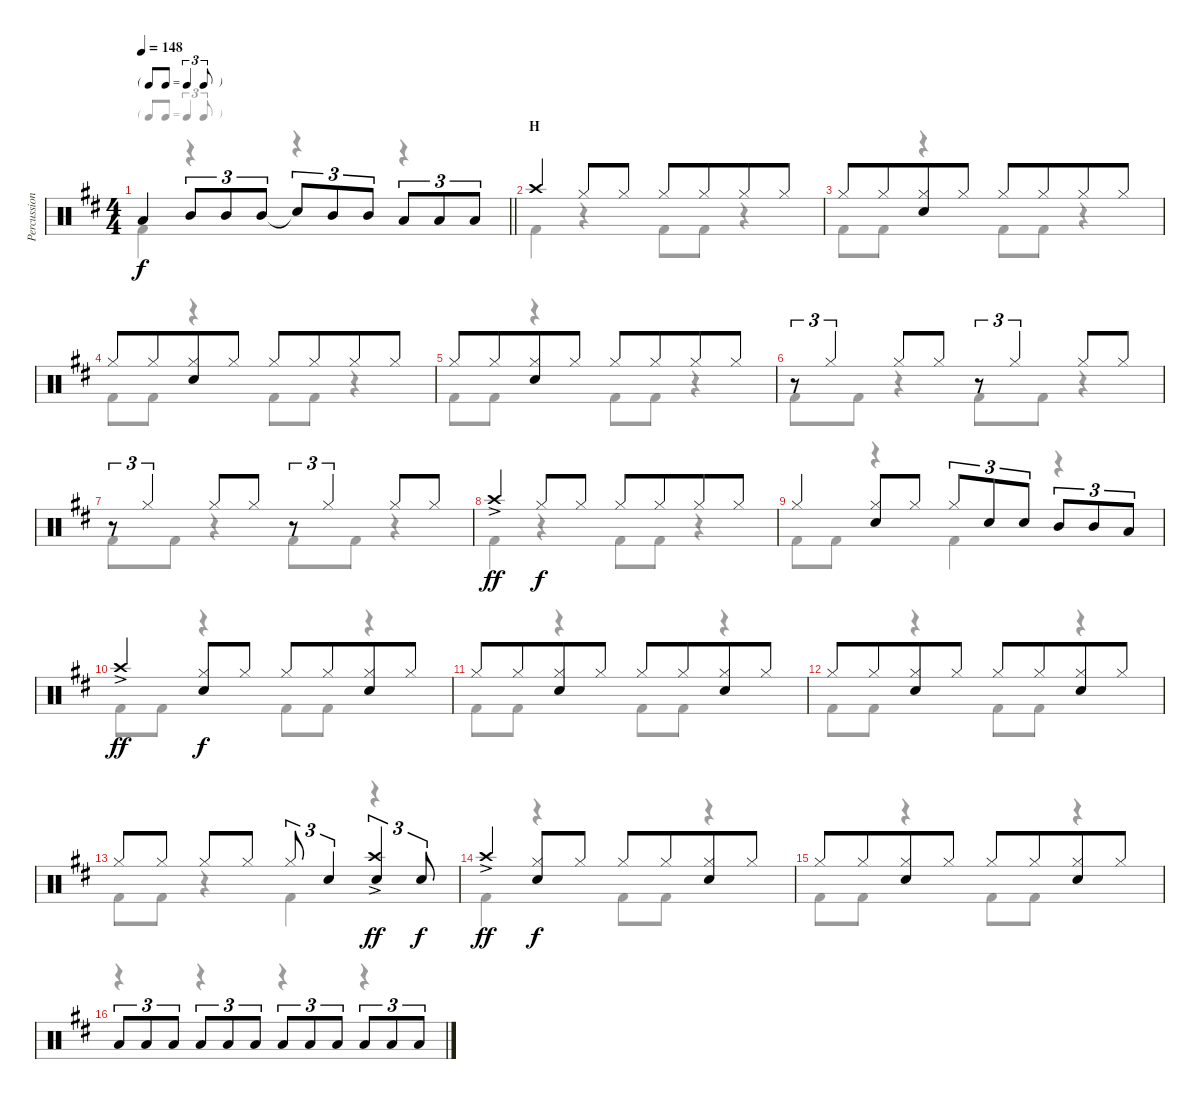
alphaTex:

\track ("Percussion" "Percussion") {instrument percussion}
\staff {score}
\articulation defaults
\voice
\ts (4 4)
\tf triplet8th
\tempo 148
\clef neutral
\barLineRight lightlight
\ks bminor "Low Tom (hit)".4{dy f} "Mid Tom (hit)".8{tu (3 2)} "Mid Tom (hit)".8{tu (3 2)} "Mid Tom (hit)".8{tu (3 2)} "Snare (hit)"{t}.8{tu (3 2)} "Mid Tom (hit)".8{tu (3 2)} "Mid Tom (hit)".8{tu (3 2)} "Low Tom (hit)".8{tu (3 2)} "Low Tom (hit)".8{tu (3 2)} "Low Tom (hit)".8{tu (3 2)}
|
\section ("" "H")
"Crash high (hit)".4 "Hi-Hat (closed)".8 "Hi-Hat (closed)".8 "Hi-Hat (closed)".8 "Hi-Hat (closed)".8{beam merge} "Hi-Hat (closed)".8 "Hi-Hat (closed)".8 |
"Hi-Hat (closed)".8 "Hi-Hat (closed)".8{beam merge} ("Hi-Hat (closed)" "Snare (hit) 2").8 "Hi-Hat (closed)".8 "Hi-Hat (closed)".8 "Hi-Hat (closed)".8{beam merge} "Hi-Hat (closed)".8 "Hi-Hat (closed)".8 |
"Hi-Hat (closed)".8 "Hi-Hat (closed)".8{beam merge} ("Hi-Hat (closed)" "Snare (hit) 2").8 "Hi-Hat (closed)".8 "Hi-Hat (closed)".8 "Hi-Hat (closed)".8{beam merge} "Hi-Hat (closed)".8 "Hi-Hat (closed)".8 |
"Hi-Hat (closed)".8 "Hi-Hat (closed)".8{beam merge} ("Hi-Hat (closed)" "Snare (hit) 2").8 "Hi-Hat (closed)".8 "Hi-Hat (closed)".8 "Hi-Hat (closed)".8{beam merge} "Hi-Hat (closed)".8 "Hi-Hat (closed)".8 |
r.8{tu (3 2)} "Hi-Hat (closed)".4{tu (3 2)} "Hi-Hat (closed)".8 "Hi-Hat (closed)".8 r.8{tu (3 2)} "Hi-Hat (closed)".4{tu (3 2)} "Hi-Hat (closed)".8 "Hi-Hat (closed)".8 |
r.8{tu (3 2)} "Hi-Hat (closed)".4{tu (3 2)} "Hi-Hat (closed)".8 "Hi-Hat (closed)".8 r.8{tu (3 2)} "Hi-Hat (closed)".4{tu (3 2)} "Hi-Hat (closed)".8 "Hi-Hat (closed)".8 |
"Crash high (hit)"{ac}.4{dy ff} "Hi-Hat (closed)".8{dy f} "Hi-Hat (closed)".8 "Hi-Hat (closed)".8 "Hi-Hat (closed)".8{beam merge} "Hi-Hat (closed)".8 "Hi-Hat (closed)".8 |
"Hi-Hat (closed)".4 ("Hi-Hat (closed)" "Snare (hit) 2").8 "Hi-Hat (closed)".8 "Hi-Hat (closed)".8{tu (3 2)} "Snare (hit) 2".8{tu (3 2)} "Snare (hit) 2".8{tu (3 2)} "Mid Tom (hit)".8{tu (3 2)} "Mid Tom (hit)".8{tu (3 2)} "Low Tom (hit)".8{tu (3 2)} |
"Crash high (hit)"{ac}.4{dy ff} ("Hi-Hat (closed)" "Snare (hit) 2").8{dy f} "Hi-Hat (closed)".8 "Hi-Hat (closed)".8 "Hi-Hat (closed)".8{beam merge} ("Hi-Hat (closed)" "Snare (hit) 2").8 "Hi-Hat (closed)".8 |
"Hi-Hat (closed)".8 "Hi-Hat (closed)".8{beam merge} ("Hi-Hat (closed)" "Snare (hit) 2").8 "Hi-Hat (closed)".8 "Hi-Hat (closed)".8 "Hi-Hat (closed)".8{beam merge} ("Hi-Hat (closed)" "Snare (hit) 2").8 "Hi-Hat (closed)".8 |
"Hi-Hat (closed)".8 "Hi-Hat (closed)".8{beam merge} ("Hi-Hat (closed)" "Snare (hit) 2").8 "Hi-Hat (closed)".8 "Hi-Hat (closed)".8 "Hi-Hat (closed)".8{beam merge} ("Hi-Hat (closed)" "Snare (hit) 2").8 "Hi-Hat (closed)".8 |
"Hi-Hat (closed)".8 "Hi-Hat (closed)".8 "Hi-Hat (closed)".8 "Hi-Hat (closed)".8 "Hi-Hat (closed)".8{tu (3 2)} "Snare (hit) 2".4{tu (3 2)} ("Crash high (hit)"{ac} "Snare (hit) 2").4{tu (3 2) dy ff} "Snare (hit) 2".8{tu (3 2) dy f} |
"Crash high (hit)"{ac}.4{dy ff} ("Hi-Hat (closed)" "Snare (hit) 2").8{dy f} "Hi-Hat (closed)".8 "Hi-Hat (closed)".8 "Hi-Hat (closed)".8{beam merge} ("Hi-Hat (closed)" "Snare (hit) 2").8 "Hi-Hat (closed)".8 |
"Hi-Hat (closed)".8 "Hi-Hat (closed)".8{beam merge} ("Hi-Hat (closed)" "Snare (hit) 2").8 "Hi-Hat (closed)".8 "Hi-Hat (closed)".8 "Hi-Hat (closed)".8{beam merge} ("Hi-Hat (closed)" "Snare (hit) 2").8 "Hi-Hat (closed)".8 |
"Low Tom (hit)".8{tu (3 2)} "Low Tom (hit)".8{tu (3 2)} "Low Tom (hit)".8{tu (3 2)} "Low Tom (hit)".8{tu (3 2)} "Low Tom (hit)".8{tu (3 2)} "Low Tom (hit)".8{tu (3 2)} "Low Tom (hit)".8{tu (3 2)} "Low Tom (hit)".8{tu (3 2)} "Low Tom (hit)".8{tu (3 2)} "Low Tom (hit)".8{tu (3 2)} "Low Tom (hit)".8{tu (3 2)} "Low Tom (hit)".8{tu (3 2)}
\voice
\clef neutral
\ottava regular
\simile none
\barLineRight lightlight
\ks bminor "Kick (hit) 2".4{dy f}
r.4 r.4 r.4 |
"Kick (hit) 2".4 r.4 "Kick (hit) 2".8 "Kick (hit) 2".8 r.4 |
"Kick (hit) 2".8 "Kick (hit) 2".8 r.4 "Kick (hit) 2".8 "Kick (hit) 2".8 r.4 |
"Kick (hit) 2".8 "Kick (hit) 2".8 r.4 "Kick (hit) 2".8 "Kick (hit) 2".8 r.4 |
"Kick (hit) 2".8 "Kick (hit) 2".8 r.4 "Kick (hit) 2".8 "Kick (hit) 2".8 r.4 |
"Kick (hit) 2".8 "Kick (hit) 2".8 r.4 "Kick (hit) 2".8 "Kick (hit) 2".8 r.4 |
"Kick (hit) 2".8 "Kick (hit) 2".8 r.4 "Kick (hit) 2".8 "Kick (hit) 2".8 r.4 |
"Kick (hit) 2".4 r.4 "Kick (hit) 2".8 "Kick (hit) 2".8 r.4 |
"Kick (hit) 2".8 "Kick (hit) 2".8 r.4 "Kick (hit) 2".4 r.4 |
"Kick (hit) 2".8 "Kick (hit) 2".8 r.4 "Kick (hit) 2".8 "Kick (hit) 2".8 r.4 |
"Kick (hit) 2".8 "Kick (hit) 2".8 r.4 "Kick (hit) 2".8 "Kick (hit) 2".8 r.4 |
"Kick (hit) 2".8 "Kick (hit) 2".8 r.4 "Kick (hit) 2".8 "Kick (hit) 2".8 r.4 |
"Kick (hit) 2".8 "Kick (hit) 2".8 r.4 "Kick (hit) 2".4 r.4 |
"Kick (hit) 2".4 r.4 "Kick (hit) 2".8 "Kick (hit) 2".8 r.4 |
"Kick (hit) 2".8 "Kick (hit) 2".8 r.4 "Kick (hit) 2".8 "Kick (hit) 2".8 r.4 |
r.4 r.4 r.4 r.4
